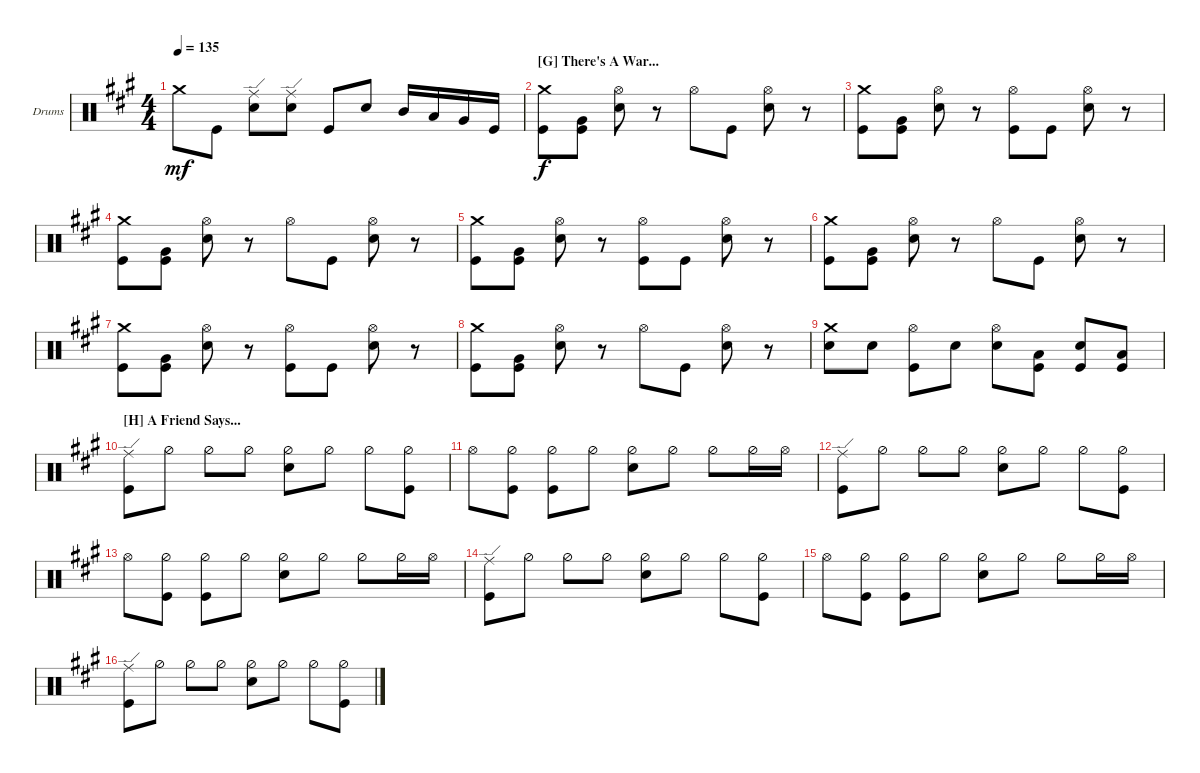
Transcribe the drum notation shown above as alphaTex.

\defaultSystemsLayout 4
\bracketExtendMode groupsimilarinstruments
\firstSystemTrackNameOrientation horizontal
\otherSystemsTrackNameOrientation horizontal
\track ("Drums" "Drums") {instrument percussion}
\staff {score}
\articulation defaults
\ts (4 4)
\tempo 135
\clef neutral
\ks f#minor "Crash medium (hit)"{t}.8{dy mf} "Kick (hit)".8
("Ride (edge)" "Snare (hit) 2").8 ("Ride (edge)" "Snare (hit) 2").8 "Kick (hit)".8 "Snare (hit) 2".8 "Mid Tom (hit)".16 "Low Tom (hit)".16 "Very Low Tom (hit)".16 "Kick (hit)".16 |
\section ("G" "There's A War...")
("Crash medium (hit)" "Kick (hit)").8{dy f} ("Very Low Tom (hit)" "Kick (hit)").8 ("Hi-Hat (open)" "Snare (hit) 2").8 r.8 "Hi-Hat (open)".8 "Kick (hit)".8 ("Hi-Hat (open)" "Snare (hit) 2").8 r.8 |
("Crash medium (hit)" "Kick (hit)").8 ("Kick (hit)" "Very Low Tom (hit)").8 ("Hi-Hat (open)" "Snare (hit) 2").8 r.8 ("Hi-Hat (open)" "Kick (hit)").8 "Kick (hit)".8 ("Hi-Hat (open)" "Snare (hit) 2").8 r.8 |
("Crash medium (hit)" "Kick (hit)").8 ("Very Low Tom (hit)" "Kick (hit)").8 ("Hi-Hat (open)" "Snare (hit) 2").8 r.8 "Hi-Hat (open)".8 "Kick (hit)".8 ("Hi-Hat (open)" "Snare (hit) 2").8 r.8 |
("Crash medium (hit)" "Kick (hit)").8 ("Kick (hit)" "Very Low Tom (hit)").8 ("Hi-Hat (open)" "Snare (hit) 2").8 r.8 ("Hi-Hat (open)" "Kick (hit)").8 "Kick (hit)".8 ("Hi-Hat (open)" "Snare (hit) 2").8 r.8 |
("Crash medium (hit)" "Kick (hit)").8 ("Very Low Tom (hit)" "Kick (hit)").8 ("Hi-Hat (open)" "Snare (hit) 2").8 r.8 "Hi-Hat (open)".8 "Kick (hit)".8 ("Hi-Hat (open)" "Snare (hit) 2").8 r.8 |
("Crash medium (hit)" "Kick (hit)").8 ("Kick (hit)" "Very Low Tom (hit)").8 ("Hi-Hat (open)" "Snare (hit) 2").8 r.8 ("Hi-Hat (open)" "Kick (hit)").8 "Kick (hit)".8 ("Hi-Hat (open)" "Snare (hit) 2").8 r.8 |
("Crash medium (hit)" "Kick (hit)").8 ("Very Low Tom (hit)" "Kick (hit)").8 ("Hi-Hat (open)" "Snare (hit) 2").8 r.8 "Hi-Hat (open)".8 "Kick (hit)".8 ("Hi-Hat (open)" "Snare (hit) 2").8 r.8 |
("Crash medium (hit)" "Snare (hit) 2").8 "Snare (hit) 2".8 ("Hi-Hat (open)" "Kick (hit)").8 "Snare (hit) 2".8 ("Hi-Hat (open)" "Snare (hit) 2").8 ("Kick (hit)" "Low Tom (hit)").8 ("Kick (hit)" "Snare (hit) 2").8 ("Kick (hit)" "Low Tom (hit)").8 |
\section ("H" "A Friend Says...")
("Ride (edge)" "Kick (hit)").8 "Hi-Hat (half)".8 "Hi-Hat (half)".8 "Hi-Hat (half)".8 ("Hi-Hat (half)" "Snare (hit) 2").8 "Hi-Hat (half)".8 "Hi-Hat (half)".8 ("Hi-Hat (half)" "Kick (hit)").8 |
"Hi-Hat (open)".8 ("Hi-Hat (half)" "Kick (hit)").8 ("Hi-Hat (half)" "Kick (hit)").8 "Hi-Hat (half)".8 ("Hi-Hat (half)" "Snare (hit) 2").8 "Hi-Hat (half)".8 "Hi-Hat (half)".8 "Hi-Hat (half)".16 "Hi-Hat (open)".16 |
("Ride (edge)" "Kick (hit)").8 "Hi-Hat (half)".8 "Hi-Hat (half)".8 "Hi-Hat (half)".8 ("Hi-Hat (half)" "Snare (hit) 2").8 "Hi-Hat (half)".8 "Hi-Hat (half)".8 ("Hi-Hat (half)" "Kick (hit)").8 |
"Hi-Hat (open)".8 ("Hi-Hat (half)" "Kick (hit)").8 ("Hi-Hat (half)" "Kick (hit)").8 "Hi-Hat (half)".8 ("Hi-Hat (half)" "Snare (hit) 2").8 "Hi-Hat (half)".8 "Hi-Hat (half)".8 "Hi-Hat (half)".16 "Hi-Hat (open)".16 |
("Ride (edge)" "Kick (hit)").8 "Hi-Hat (half)".8 "Hi-Hat (half)".8 "Hi-Hat (half)".8 ("Hi-Hat (half)" "Snare (hit) 2").8 "Hi-Hat (half)".8 "Hi-Hat (half)".8 ("Hi-Hat (half)" "Kick (hit)").8 |
"Hi-Hat (open)".8 ("Hi-Hat (half)" "Kick (hit)").8 ("Hi-Hat (half)" "Kick (hit)").8 "Hi-Hat (half)".8 ("Hi-Hat (half)" "Snare (hit) 2").8 "Hi-Hat (half)".8 "Hi-Hat (half)".8 "Hi-Hat (half)".16 "Hi-Hat (open)".16 |
("Ride (edge)" "Kick (hit)").8 "Hi-Hat (half)".8 "Hi-Hat (half)".8 "Hi-Hat (half)".8 ("Hi-Hat (half)" "Snare (hit) 2").8 "Hi-Hat (half)".8 "Hi-Hat (half)".8 ("Hi-Hat (half)" "Kick (hit)").8
